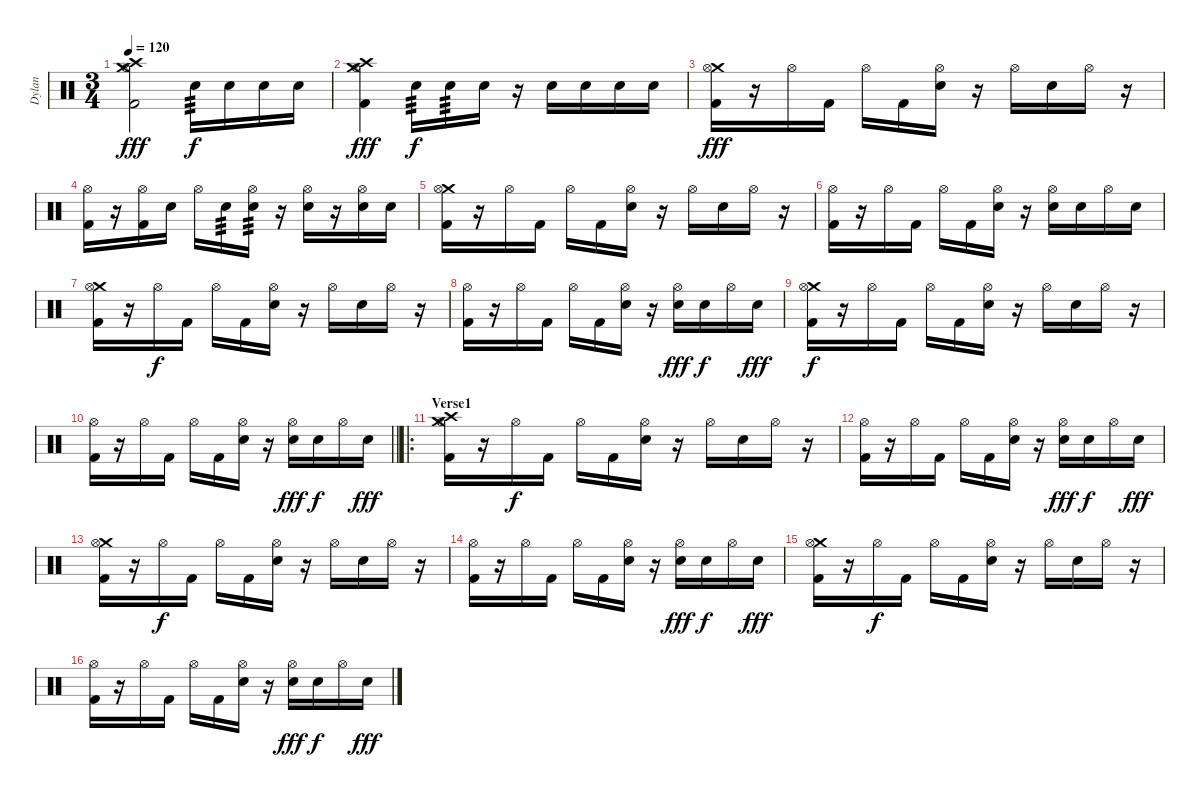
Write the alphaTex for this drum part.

\track ("Dylan" "Dylan") {instrument percussion}
\staff {score}
\articulation defaults
\ts (3 4)
\tempo 120
\clef neutral
\ks c
("Crash high (hit)" "Crash medium (hit)" "Hi-Hat (open)" "Kick (hit) 2").2{dy fff} "Electric Snare (hit)".16{tp 3 dy f} "Electric Snare (hit)".16 "Electric Snare (hit)".16 "Electric Snare (hit)".16 |
("Crash medium (hit)" "Crash high (hit)" "Hi-Hat (open)" "Kick (hit) 2").4{dy fff} "Electric Snare (hit)".16{tp 3 dy f} "Electric Snare (hit)".16{tp 3} "Electric Snare (hit)".16 r.16 "Electric Snare (hit)".16 "Electric Snare (hit)".16 "Electric Snare (hit)".16 "Electric Snare (hit)".16 |
("Crash medium (hit)" "Hi-Hat (open)" "Kick (hit) 2").16{dy fff} r.16 "Hi-Hat (open)".16 "Kick (hit) 2".16 "Hi-Hat (open)".16 "Kick (hit) 2".16 ("Hi-Hat (open)" "Electric Snare (hit)").16 r.16 "Hi-Hat (open)".16 "Electric Snare (hit)".16 "Hi-Hat (open)".16 r.16 |
("Hi-Hat (open)" "Kick (hit) 2").16 r.16 ("Hi-Hat (open)" "Kick (hit) 2").16 "Electric Snare (hit)".16 "Hi-Hat (open)".16 "Electric Snare (hit)".16{tp 3} ("Hi-Hat (open)" "Electric Snare (hit)").16{tp 3} r.16 ("Hi-Hat (open)" "Electric Snare (hit)").16 r.16 ("Hi-Hat (open)" "Electric Snare (hit)").16 "Electric Snare (hit)".16 |
("Crash medium (hit)" "Hi-Hat (open)" "Kick (hit) 2").16 r.16 "Hi-Hat (open)".16 "Kick (hit) 2".16 "Hi-Hat (open)".16 "Kick (hit) 2".16 ("Hi-Hat (open)" "Electric Snare (hit)").16 r.16 "Hi-Hat (open)".16 "Electric Snare (hit)".16 "Hi-Hat (open)".16 r.16 |
("Hi-Hat (open)" "Kick (hit) 2").16 r.16 "Hi-Hat (open)".16 "Kick (hit) 2".16 "Hi-Hat (open)".16 "Kick (hit) 2".16 ("Hi-Hat (open)" "Electric Snare (hit)").16 r.16 ("Hi-Hat (open)" "Electric Snare (hit)").16 "Electric Snare (hit)".16 "Hi-Hat (open)".16 "Electric Snare (hit)".16 |
("Crash medium (hit)" "Hi-Hat (open)" "Kick (hit) 2").16 r.16 "Hi-Hat (open)".16{dy f} "Kick (hit) 2".16 "Hi-Hat (open)".16 "Kick (hit) 2".16 ("Hi-Hat (open)" "Electric Snare (hit)").16 r.16 "Hi-Hat (open)".16 "Electric Snare (hit)".16 "Hi-Hat (open)".16 r.16 |
("Hi-Hat (open)" "Kick (hit) 2").16 r.16 "Hi-Hat (open)".16 "Kick (hit) 2".16 "Hi-Hat (open)".16 "Kick (hit) 2".16 ("Hi-Hat (open)" "Electric Snare (hit)").16 r.16 ("Hi-Hat (open)" "Electric Snare (hit)").16{dy fff} "Electric Snare (hit)".16{dy f} "Hi-Hat (open)".16 "Electric Snare (hit)".16{dy fff} |
("Crash medium (hit)" "Hi-Hat (open)" "Kick (hit) 2").16{dy f} r.16 "Hi-Hat (open)".16 "Kick (hit) 2".16 "Hi-Hat (open)".16 "Kick (hit) 2".16 ("Hi-Hat (open)" "Electric Snare (hit)").16 r.16 "Hi-Hat (open)".16 "Electric Snare (hit)".16 "Hi-Hat (open)".16 r.16 |
\barLineRight lightlight
("Hi-Hat (open)" "Kick (hit) 2").16 r.16 "Hi-Hat (open)".16 "Kick (hit) 2".16 "Hi-Hat (open)".16 "Kick (hit) 2".16 ("Hi-Hat (open)" "Electric Snare (hit)").16 r.16 ("Hi-Hat (open)" "Electric Snare (hit)").16{dy fff} "Electric Snare (hit)".16{dy f} "Hi-Hat (open)".16 "Electric Snare (hit)".16{dy fff} |
\ro
\section ("" "Verse1")
("Crash high (hit)" "Crash medium (hit)" "Hi-Hat (open)" "Kick (hit) 2").16 r.16 "Hi-Hat (open)".16{dy f} "Kick (hit) 2".16 "Hi-Hat (open)".16 "Kick (hit) 2".16 ("Hi-Hat (open)" "Electric Snare (hit)").16 r.16 "Hi-Hat (open)".16 "Electric Snare (hit)".16 "Hi-Hat (open)".16 r.16 |
("Hi-Hat (open)" "Kick (hit) 2").16 r.16 "Hi-Hat (open)".16 "Kick (hit) 2".16 "Hi-Hat (open)".16 "Kick (hit) 2".16 ("Hi-Hat (open)" "Electric Snare (hit)").16 r.16 ("Hi-Hat (open)" "Electric Snare (hit)").16{dy fff} "Electric Snare (hit)".16{dy f} "Hi-Hat (open)".16 "Electric Snare (hit)".16{dy fff} |
("Crash medium (hit)" "Hi-Hat (open)" "Kick (hit) 2").16 r.16 "Hi-Hat (open)".16{dy f} "Kick (hit) 2".16 "Hi-Hat (open)".16 "Kick (hit) 2".16 ("Hi-Hat (open)" "Electric Snare (hit)").16 r.16 "Hi-Hat (open)".16 "Electric Snare (hit)".16 "Hi-Hat (open)".16 r.16 |
("Hi-Hat (open)" "Kick (hit) 2").16 r.16 "Hi-Hat (open)".16 "Kick (hit) 2".16 "Hi-Hat (open)".16 "Kick (hit) 2".16 ("Hi-Hat (open)" "Electric Snare (hit)").16 r.16 ("Hi-Hat (open)" "Electric Snare (hit)").16{dy fff} "Electric Snare (hit)".16{dy f} "Hi-Hat (open)".16 "Electric Snare (hit)".16{dy fff} |
("Crash medium (hit)" "Hi-Hat (open)" "Kick (hit) 2").16 r.16 "Hi-Hat (open)".16{dy f} "Kick (hit) 2".16 "Hi-Hat (open)".16 "Kick (hit) 2".16 ("Hi-Hat (open)" "Electric Snare (hit)").16 r.16 "Hi-Hat (open)".16 "Electric Snare (hit)".16 "Hi-Hat (open)".16 r.16 |
("Hi-Hat (open)" "Kick (hit) 2").16 r.16 "Hi-Hat (open)".16 "Kick (hit) 2".16 "Hi-Hat (open)".16 "Kick (hit) 2".16 ("Hi-Hat (open)" "Electric Snare (hit)").16 r.16 ("Hi-Hat (open)" "Electric Snare (hit)").16{dy fff} "Electric Snare (hit)".16{dy f} "Hi-Hat (open)".16 "Electric Snare (hit)".16{dy fff}
